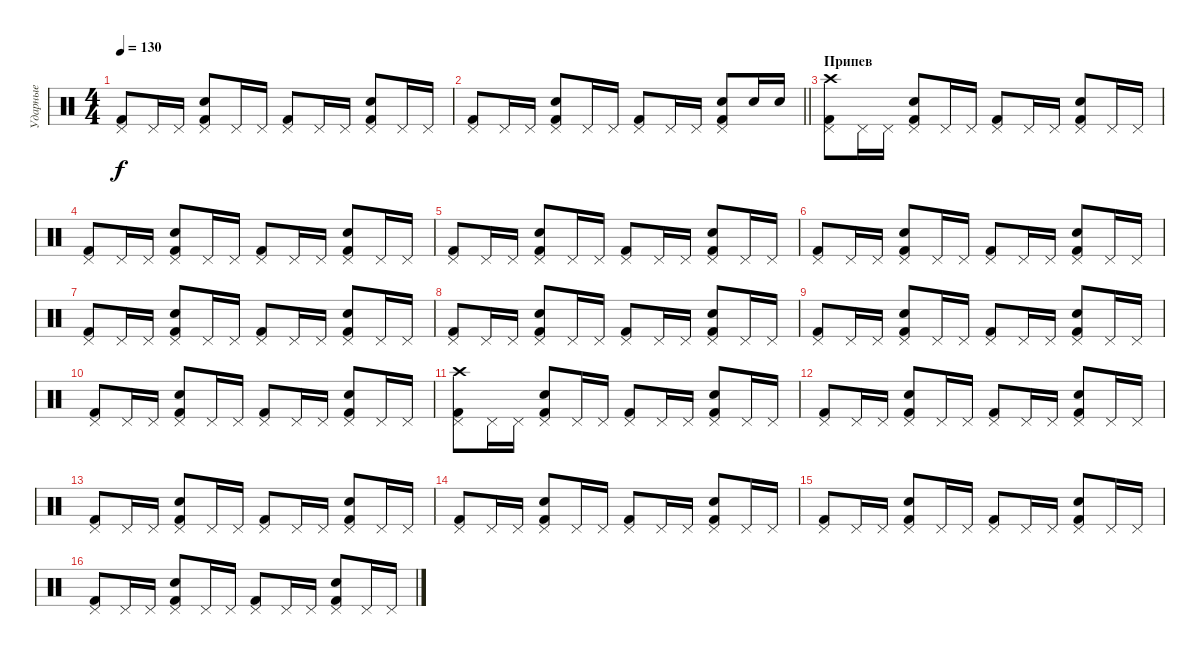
\track ("Ударные" "Ударные") {instrument percussion}
\staff {score}
\articulation defaults
\ts (4 4)
\tempo 130
\clef neutral
\ks c
("Pedal Hi-Hat (hit)" "Kick (hit) 2").8{dy f} "Pedal Hi-Hat (hit)".16 "Pedal Hi-Hat (hit)".16 ("Pedal Hi-Hat (hit)" "Electric Snare (hit)" "Kick (hit) 2").8 "Pedal Hi-Hat (hit)".16 "Pedal Hi-Hat (hit)".16 ("Pedal Hi-Hat (hit)" "Kick (hit) 2").8 "Pedal Hi-Hat (hit)".16 "Pedal Hi-Hat (hit)".16 ("Pedal Hi-Hat (hit)" "Electric Snare (hit)" "Kick (hit) 2").8 "Pedal Hi-Hat (hit)".16 "Pedal Hi-Hat (hit)".16 |
\barLineRight lightlight
("Pedal Hi-Hat (hit)" "Kick (hit) 2").8 "Pedal Hi-Hat (hit)".16 "Pedal Hi-Hat (hit)".16 ("Pedal Hi-Hat (hit)" "Electric Snare (hit)" "Kick (hit) 2").8 "Pedal Hi-Hat (hit)".16 "Pedal Hi-Hat (hit)".16 ("Pedal Hi-Hat (hit)" "Kick (hit) 2").8 "Pedal Hi-Hat (hit)".16 "Pedal Hi-Hat (hit)".16 ("Pedal Hi-Hat (hit)" "Electric Snare (hit)" "Kick (hit) 2").8 "Electric Snare (hit)".16 "Electric Snare (hit)".16 |
\section ("" "Припев")
("Pedal Hi-Hat (hit)" "Crash high (hit)" "Kick (hit) 2").8 "Pedal Hi-Hat (hit)".16 "Pedal Hi-Hat (hit)".16 ("Pedal Hi-Hat (hit)" "Electric Snare (hit)" "Kick (hit) 2").8 "Pedal Hi-Hat (hit)".16 "Pedal Hi-Hat (hit)".16 ("Pedal Hi-Hat (hit)" "Kick (hit) 2").8 "Pedal Hi-Hat (hit)".16 "Pedal Hi-Hat (hit)".16 ("Pedal Hi-Hat (hit)" "Electric Snare (hit)" "Kick (hit) 2").8 "Pedal Hi-Hat (hit)".16 "Pedal Hi-Hat (hit)".16 |
("Pedal Hi-Hat (hit)" "Kick (hit) 2").8 "Pedal Hi-Hat (hit)".16 "Pedal Hi-Hat (hit)".16 ("Pedal Hi-Hat (hit)" "Electric Snare (hit)" "Kick (hit) 2").8 "Pedal Hi-Hat (hit)".16 "Pedal Hi-Hat (hit)".16 ("Pedal Hi-Hat (hit)" "Kick (hit) 2").8 "Pedal Hi-Hat (hit)".16 "Pedal Hi-Hat (hit)".16 ("Pedal Hi-Hat (hit)" "Electric Snare (hit)" "Kick (hit) 2").8 "Pedal Hi-Hat (hit)".16 "Pedal Hi-Hat (hit)".16 |
("Pedal Hi-Hat (hit)" "Kick (hit) 2").8 "Pedal Hi-Hat (hit)".16 "Pedal Hi-Hat (hit)".16 ("Pedal Hi-Hat (hit)" "Electric Snare (hit)" "Kick (hit) 2").8 "Pedal Hi-Hat (hit)".16 "Pedal Hi-Hat (hit)".16 ("Pedal Hi-Hat (hit)" "Kick (hit) 2").8 "Pedal Hi-Hat (hit)".16 "Pedal Hi-Hat (hit)".16 ("Pedal Hi-Hat (hit)" "Electric Snare (hit)" "Kick (hit) 2").8 "Pedal Hi-Hat (hit)".16 "Pedal Hi-Hat (hit)".16 |
("Pedal Hi-Hat (hit)" "Kick (hit) 2").8 "Pedal Hi-Hat (hit)".16 "Pedal Hi-Hat (hit)".16 ("Pedal Hi-Hat (hit)" "Electric Snare (hit)" "Kick (hit) 2").8 "Pedal Hi-Hat (hit)".16 "Pedal Hi-Hat (hit)".16 ("Pedal Hi-Hat (hit)" "Kick (hit) 2").8 "Pedal Hi-Hat (hit)".16 "Pedal Hi-Hat (hit)".16 ("Pedal Hi-Hat (hit)" "Electric Snare (hit)" "Kick (hit) 2").8 "Pedal Hi-Hat (hit)".16 "Pedal Hi-Hat (hit)".16 |
("Pedal Hi-Hat (hit)" "Kick (hit) 2").8 "Pedal Hi-Hat (hit)".16 "Pedal Hi-Hat (hit)".16 ("Pedal Hi-Hat (hit)" "Electric Snare (hit)" "Kick (hit) 2").8 "Pedal Hi-Hat (hit)".16 "Pedal Hi-Hat (hit)".16 ("Pedal Hi-Hat (hit)" "Kick (hit) 2").8 "Pedal Hi-Hat (hit)".16 "Pedal Hi-Hat (hit)".16 ("Pedal Hi-Hat (hit)" "Electric Snare (hit)" "Kick (hit) 2").8 "Pedal Hi-Hat (hit)".16 "Pedal Hi-Hat (hit)".16 |
("Pedal Hi-Hat (hit)" "Kick (hit) 2").8 "Pedal Hi-Hat (hit)".16 "Pedal Hi-Hat (hit)".16 ("Pedal Hi-Hat (hit)" "Electric Snare (hit)" "Kick (hit) 2").8 "Pedal Hi-Hat (hit)".16 "Pedal Hi-Hat (hit)".16 ("Pedal Hi-Hat (hit)" "Kick (hit) 2").8 "Pedal Hi-Hat (hit)".16 "Pedal Hi-Hat (hit)".16 ("Pedal Hi-Hat (hit)" "Electric Snare (hit)" "Kick (hit) 2").8 "Pedal Hi-Hat (hit)".16 "Pedal Hi-Hat (hit)".16 |
("Pedal Hi-Hat (hit)" "Kick (hit) 2").8 "Pedal Hi-Hat (hit)".16 "Pedal Hi-Hat (hit)".16 ("Pedal Hi-Hat (hit)" "Electric Snare (hit)" "Kick (hit) 2").8 "Pedal Hi-Hat (hit)".16 "Pedal Hi-Hat (hit)".16 ("Pedal Hi-Hat (hit)" "Kick (hit) 2").8 "Pedal Hi-Hat (hit)".16 "Pedal Hi-Hat (hit)".16 ("Pedal Hi-Hat (hit)" "Electric Snare (hit)" "Kick (hit) 2").8 "Pedal Hi-Hat (hit)".16 "Pedal Hi-Hat (hit)".16 |
("Pedal Hi-Hat (hit)" "Kick (hit) 2").8 "Pedal Hi-Hat (hit)".16 "Pedal Hi-Hat (hit)".16 ("Pedal Hi-Hat (hit)" "Electric Snare (hit)" "Kick (hit) 2").8 "Pedal Hi-Hat (hit)".16 "Pedal Hi-Hat (hit)".16 ("Pedal Hi-Hat (hit)" "Kick (hit) 2").8 "Pedal Hi-Hat (hit)".16 "Pedal Hi-Hat (hit)".16 ("Pedal Hi-Hat (hit)" "Electric Snare (hit)" "Kick (hit) 2").8 "Pedal Hi-Hat (hit)".16 "Pedal Hi-Hat (hit)".16 |
("Pedal Hi-Hat (hit)" "Crash high (hit)" "Kick (hit) 2").8 "Pedal Hi-Hat (hit)".16 "Pedal Hi-Hat (hit)".16 ("Pedal Hi-Hat (hit)" "Electric Snare (hit)" "Kick (hit) 2").8 "Pedal Hi-Hat (hit)".16 "Pedal Hi-Hat (hit)".16 ("Pedal Hi-Hat (hit)" "Kick (hit) 2").8 "Pedal Hi-Hat (hit)".16 "Pedal Hi-Hat (hit)".16 ("Pedal Hi-Hat (hit)" "Electric Snare (hit)" "Kick (hit) 2").8 "Pedal Hi-Hat (hit)".16 "Pedal Hi-Hat (hit)".16 |
("Pedal Hi-Hat (hit)" "Kick (hit) 2").8 "Pedal Hi-Hat (hit)".16 "Pedal Hi-Hat (hit)".16 ("Pedal Hi-Hat (hit)" "Electric Snare (hit)" "Kick (hit) 2").8 "Pedal Hi-Hat (hit)".16 "Pedal Hi-Hat (hit)".16 ("Pedal Hi-Hat (hit)" "Kick (hit) 2").8 "Pedal Hi-Hat (hit)".16 "Pedal Hi-Hat (hit)".16 ("Pedal Hi-Hat (hit)" "Electric Snare (hit)" "Kick (hit) 2").8 "Pedal Hi-Hat (hit)".16 "Pedal Hi-Hat (hit)".16 |
("Pedal Hi-Hat (hit)" "Kick (hit) 2").8 "Pedal Hi-Hat (hit)".16 "Pedal Hi-Hat (hit)".16 ("Pedal Hi-Hat (hit)" "Electric Snare (hit)" "Kick (hit) 2").8 "Pedal Hi-Hat (hit)".16 "Pedal Hi-Hat (hit)".16 ("Pedal Hi-Hat (hit)" "Kick (hit) 2").8 "Pedal Hi-Hat (hit)".16 "Pedal Hi-Hat (hit)".16 ("Pedal Hi-Hat (hit)" "Electric Snare (hit)" "Kick (hit) 2").8 "Pedal Hi-Hat (hit)".16 "Pedal Hi-Hat (hit)".16 |
("Pedal Hi-Hat (hit)" "Kick (hit) 2").8 "Pedal Hi-Hat (hit)".16 "Pedal Hi-Hat (hit)".16 ("Pedal Hi-Hat (hit)" "Electric Snare (hit)" "Kick (hit) 2").8 "Pedal Hi-Hat (hit)".16 "Pedal Hi-Hat (hit)".16 ("Pedal Hi-Hat (hit)" "Kick (hit) 2").8 "Pedal Hi-Hat (hit)".16 "Pedal Hi-Hat (hit)".16 ("Pedal Hi-Hat (hit)" "Electric Snare (hit)" "Kick (hit) 2").8 "Pedal Hi-Hat (hit)".16 "Pedal Hi-Hat (hit)".16 |
("Pedal Hi-Hat (hit)" "Kick (hit) 2").8 "Pedal Hi-Hat (hit)".16 "Pedal Hi-Hat (hit)".16 ("Pedal Hi-Hat (hit)" "Electric Snare (hit)" "Kick (hit) 2").8 "Pedal Hi-Hat (hit)".16 "Pedal Hi-Hat (hit)".16 ("Pedal Hi-Hat (hit)" "Kick (hit) 2").8 "Pedal Hi-Hat (hit)".16 "Pedal Hi-Hat (hit)".16 ("Pedal Hi-Hat (hit)" "Electric Snare (hit)" "Kick (hit) 2").8 "Pedal Hi-Hat (hit)".16 "Pedal Hi-Hat (hit)".16 |
("Pedal Hi-Hat (hit)" "Kick (hit) 2").8 "Pedal Hi-Hat (hit)".16 "Pedal Hi-Hat (hit)".16 ("Pedal Hi-Hat (hit)" "Electric Snare (hit)" "Kick (hit) 2").8 "Pedal Hi-Hat (hit)".16 "Pedal Hi-Hat (hit)".16 ("Pedal Hi-Hat (hit)" "Kick (hit) 2").8 "Pedal Hi-Hat (hit)".16 "Pedal Hi-Hat (hit)".16 ("Pedal Hi-Hat (hit)" "Electric Snare (hit)" "Kick (hit) 2").8 "Pedal Hi-Hat (hit)".16 "Pedal Hi-Hat (hit)".16
